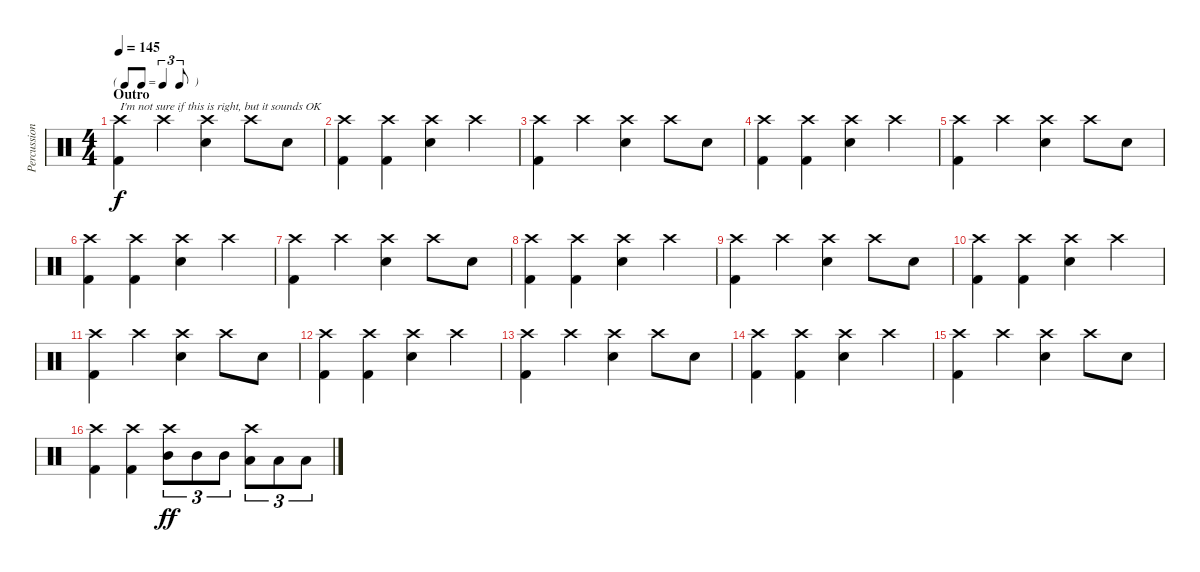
\track ("Percussion" "Percussion") {instrument percussion}
\staff {score}
\articulation defaults
\ts (4 4)
\tf triplet8th
\section ("" "Outro")
\tempo 145
\clef neutral
\ks c
("Crash high (hit)" "Kick (hit) 2").4{txt "I'm not sure if this is right, but it sounds OK" dy f} "Crash high (hit)".4 ("Crash high (hit)" "Electric Snare (hit)").4 "Crash high (hit)".8 "Electric Snare (hit)".8 |
("Crash high (hit)" "Kick (hit) 2").4 ("Crash high (hit)" "Kick (hit) 2").4 ("Crash high (hit)" "Electric Snare (hit)").4 "Crash high (hit)".4 |
("Crash high (hit)" "Kick (hit) 2").4 "Crash high (hit)".4 ("Crash high (hit)" "Electric Snare (hit)").4 "Crash high (hit)".8 "Electric Snare (hit)".8 |
("Crash high (hit)" "Kick (hit) 2").4 ("Crash high (hit)" "Kick (hit) 2").4 ("Crash high (hit)" "Electric Snare (hit)").4 "Crash high (hit)".4 |
("Crash high (hit)" "Kick (hit) 2").4 "Crash high (hit)".4 ("Crash high (hit)" "Electric Snare (hit)").4 "Crash high (hit)".8 "Electric Snare (hit)".8 |
("Crash high (hit)" "Kick (hit) 2").4 ("Crash high (hit)" "Kick (hit) 2").4 ("Crash high (hit)" "Electric Snare (hit)").4 "Crash high (hit)".4 |
("Crash high (hit)" "Kick (hit) 2").4 "Crash high (hit)".4 ("Crash high (hit)" "Electric Snare (hit)").4 "Crash high (hit)".8 "Electric Snare (hit)".8 |
("Crash high (hit)" "Kick (hit) 2").4 ("Crash high (hit)" "Kick (hit) 2").4 ("Crash high (hit)" "Electric Snare (hit)").4 "Crash high (hit)".4 |
("Crash high (hit)" "Kick (hit) 2").4 "Crash high (hit)".4 ("Crash high (hit)" "Electric Snare (hit)").4 "Crash high (hit)".8 "Electric Snare (hit)".8 |
("Crash high (hit)" "Kick (hit) 2").4 ("Crash high (hit)" "Kick (hit) 2").4 ("Crash high (hit)" "Electric Snare (hit)").4 "Crash high (hit)".4 |
("Crash high (hit)" "Kick (hit) 2").4 "Crash high (hit)".4 ("Crash high (hit)" "Electric Snare (hit)").4 "Crash high (hit)".8 "Electric Snare (hit)".8 |
("Crash high (hit)" "Kick (hit) 2").4 ("Crash high (hit)" "Kick (hit) 2").4 ("Crash high (hit)" "Electric Snare (hit)").4 "Crash high (hit)".4 |
("Crash high (hit)" "Kick (hit) 2").4 "Crash high (hit)".4 ("Crash high (hit)" "Electric Snare (hit)").4 "Crash high (hit)".8 "Electric Snare (hit)".8 |
("Crash high (hit)" "Kick (hit) 2").4 ("Crash high (hit)" "Kick (hit) 2").4 ("Crash high (hit)" "Electric Snare (hit)").4 "Crash high (hit)".4 |
("Crash high (hit)" "Kick (hit) 2").4 "Crash high (hit)".4 ("Crash high (hit)" "Electric Snare (hit)").4 "Crash high (hit)".8 "Electric Snare (hit)".8 |
("Crash high (hit)" "Kick (hit) 2").4 ("Crash high (hit)" "Kick (hit) 2").4 ("Crash high (hit)" "Mid Tom (hit)").8{tu (3 2) dy ff} "Mid Tom (hit)".8{tu (3 2)} "Mid Tom (hit)".8{tu (3 2)} ("Crash high (hit)" "Low Tom (hit)").8{tu (3 2)} "Low Tom (hit)".8{tu (3 2)} "Low Tom (hit)".8{tu (3 2)}
